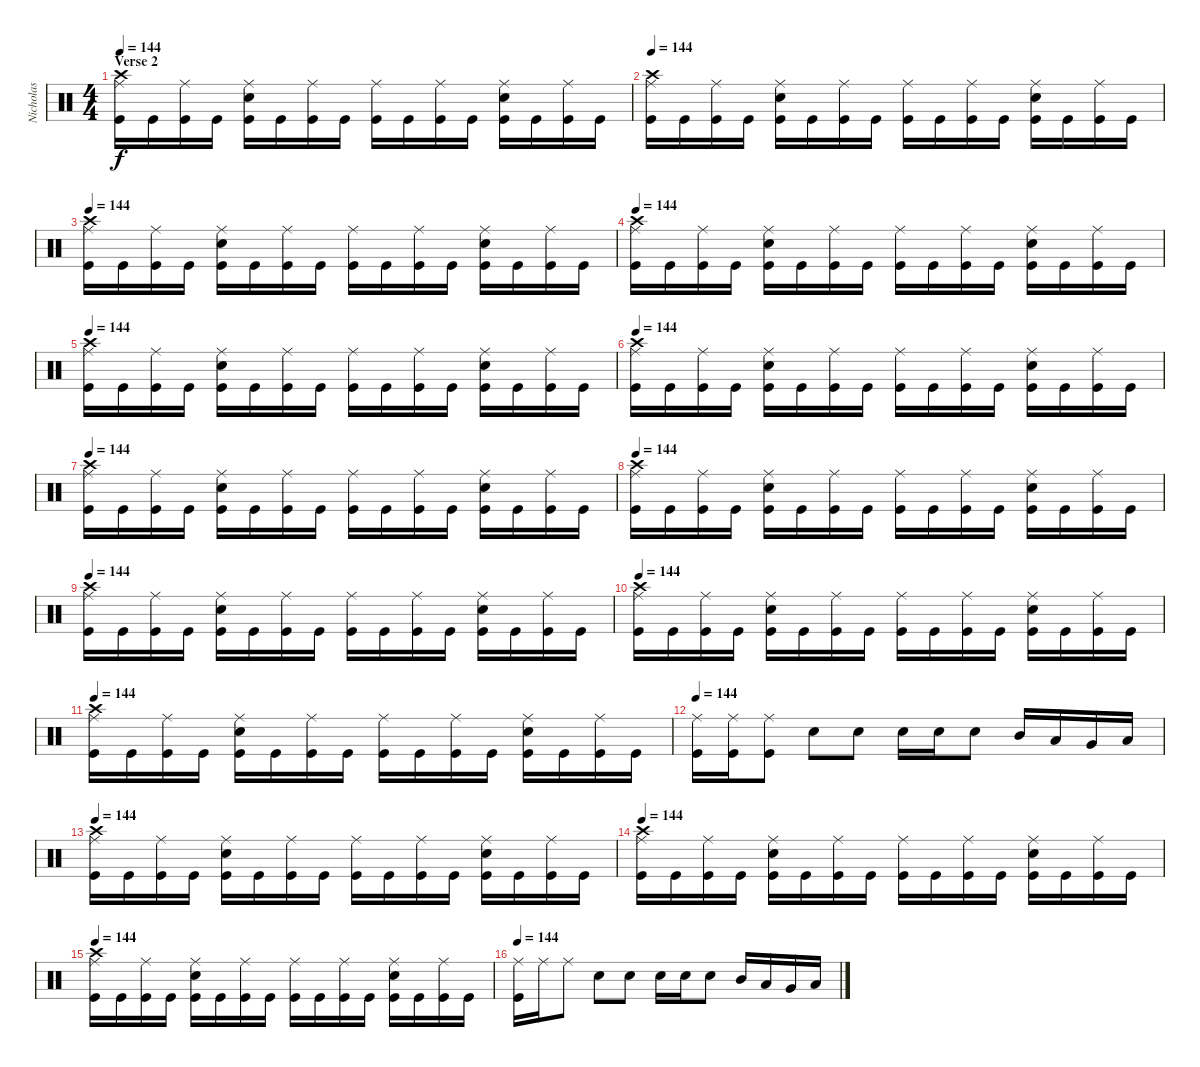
\track ("Nicholas" "Nicholas") {instrument percussion}
\staff {score}
\articulation defaults
\ts (4 4)
\section ("" "Verse 2")
\tempo 144
\clef neutral
\ks c
("Kick (hit)" "Ride (middle)" "Crash high (hit)").16{dy f} "Kick (hit)".16 ("Kick (hit)" "Ride (middle)").16 "Kick (hit)".16 ("Kick (hit)" "Snare (hit) 2" "Ride (middle)").16 "Kick (hit)".16 ("Kick (hit)" "Ride (middle)").16 "Kick (hit)".16 ("Kick (hit)" "Ride (middle)").16 "Kick (hit)".16 ("Kick (hit)" "Ride (middle)").16 "Kick (hit)".16 ("Kick (hit)" "Snare (hit) 2" "Ride (middle)").16 "Kick (hit)".16 ("Kick (hit)" "Ride (middle)").16 "Kick (hit)".16 |
\tempo 144
("Kick (hit)" "Ride (middle)" "Crash high (hit)").16 "Kick (hit)".16 ("Kick (hit)" "Ride (middle)").16 "Kick (hit)".16 ("Kick (hit)" "Snare (hit) 2" "Ride (middle)").16 "Kick (hit)".16 ("Kick (hit)" "Ride (middle)").16 "Kick (hit)".16 ("Kick (hit)" "Ride (middle)").16 "Kick (hit)".16 ("Kick (hit)" "Ride (middle)").16 "Kick (hit)".16 ("Kick (hit)" "Snare (hit) 2" "Ride (middle)").16 "Kick (hit)".16 ("Kick (hit)" "Ride (middle)").16 "Kick (hit)".16 |
\tempo 144
("Kick (hit)" "Ride (middle)" "Crash high (hit)").16 "Kick (hit)".16 ("Kick (hit)" "Ride (middle)").16 "Kick (hit)".16 ("Kick (hit)" "Snare (hit) 2" "Ride (middle)").16 "Kick (hit)".16 ("Kick (hit)" "Ride (middle)").16 "Kick (hit)".16 ("Kick (hit)" "Ride (middle)").16 "Kick (hit)".16 ("Kick (hit)" "Ride (middle)").16 "Kick (hit)".16 ("Kick (hit)" "Snare (hit) 2" "Ride (middle)").16 "Kick (hit)".16 ("Kick (hit)" "Ride (middle)").16 "Kick (hit)".16 |
\tempo 144
("Kick (hit)" "Ride (middle)" "Crash high (hit)").16 "Kick (hit)".16 ("Kick (hit)" "Ride (middle)").16 "Kick (hit)".16 ("Kick (hit)" "Snare (hit) 2" "Ride (middle)").16 "Kick (hit)".16 ("Kick (hit)" "Ride (middle)").16 "Kick (hit)".16 ("Kick (hit)" "Ride (middle)").16 "Kick (hit)".16 ("Kick (hit)" "Ride (middle)").16 "Kick (hit)".16 ("Kick (hit)" "Snare (hit) 2" "Ride (middle)").16 "Kick (hit)".16 ("Kick (hit)" "Ride (middle)").16 "Kick (hit)".16 |
\tempo 144
("Kick (hit)" "Ride (middle)" "Crash high (hit)").16 "Kick (hit)".16 ("Kick (hit)" "Ride (middle)").16 "Kick (hit)".16 ("Kick (hit)" "Snare (hit) 2" "Ride (middle)").16 "Kick (hit)".16 ("Kick (hit)" "Ride (middle)").16 "Kick (hit)".16 ("Kick (hit)" "Ride (middle)").16 "Kick (hit)".16 ("Kick (hit)" "Ride (middle)").16 "Kick (hit)".16 ("Kick (hit)" "Snare (hit) 2" "Ride (middle)").16 "Kick (hit)".16 ("Kick (hit)" "Ride (middle)").16 "Kick (hit)".16 |
\tempo 144
("Kick (hit)" "Ride (middle)" "Crash high (hit)").16 "Kick (hit)".16 ("Kick (hit)" "Ride (middle)").16 "Kick (hit)".16 ("Kick (hit)" "Snare (hit) 2" "Ride (middle)").16 "Kick (hit)".16 ("Kick (hit)" "Ride (middle)").16 "Kick (hit)".16 ("Kick (hit)" "Ride (middle)").16 "Kick (hit)".16 ("Kick (hit)" "Ride (middle)").16 "Kick (hit)".16 ("Kick (hit)" "Snare (hit) 2" "Ride (middle)").16 "Kick (hit)".16 ("Kick (hit)" "Ride (middle)").16 "Kick (hit)".16 |
\tempo 144
("Kick (hit)" "Ride (middle)" "Crash high (hit)").16 "Kick (hit)".16 ("Kick (hit)" "Ride (middle)").16 "Kick (hit)".16 ("Kick (hit)" "Snare (hit) 2" "Ride (middle)").16 "Kick (hit)".16 ("Kick (hit)" "Ride (middle)").16 "Kick (hit)".16 ("Kick (hit)" "Ride (middle)").16 "Kick (hit)".16 ("Kick (hit)" "Ride (middle)").16 "Kick (hit)".16 ("Kick (hit)" "Snare (hit) 2" "Ride (middle)").16 "Kick (hit)".16 ("Kick (hit)" "Ride (middle)").16 "Kick (hit)".16 |
\tempo 144
("Kick (hit)" "Ride (middle)" "Crash high (hit)").16 "Kick (hit)".16 ("Kick (hit)" "Ride (middle)").16 "Kick (hit)".16 ("Kick (hit)" "Snare (hit) 2" "Ride (middle)").16 "Kick (hit)".16 ("Kick (hit)" "Ride (middle)").16 "Kick (hit)".16 ("Kick (hit)" "Ride (middle)").16 "Kick (hit)".16 ("Kick (hit)" "Ride (middle)").16 "Kick (hit)".16 ("Kick (hit)" "Snare (hit) 2" "Ride (middle)").16 "Kick (hit)".16 ("Kick (hit)" "Ride (middle)").16 "Kick (hit)".16 |
\tempo 144
("Kick (hit)" "Ride (middle)" "Crash high (hit)").16 "Kick (hit)".16 ("Kick (hit)" "Ride (middle)").16 "Kick (hit)".16 ("Kick (hit)" "Snare (hit) 2" "Ride (middle)").16 "Kick (hit)".16 ("Kick (hit)" "Ride (middle)").16 "Kick (hit)".16 ("Kick (hit)" "Ride (middle)").16 "Kick (hit)".16 ("Kick (hit)" "Ride (middle)").16 "Kick (hit)".16 ("Kick (hit)" "Snare (hit) 2" "Ride (middle)").16 "Kick (hit)".16 ("Kick (hit)" "Ride (middle)").16 "Kick (hit)".16 |
\tempo 144
("Kick (hit)" "Ride (middle)" "Crash high (hit)").16 "Kick (hit)".16 ("Kick (hit)" "Ride (middle)").16 "Kick (hit)".16 ("Kick (hit)" "Snare (hit) 2" "Ride (middle)").16 "Kick (hit)".16 ("Kick (hit)" "Ride (middle)").16 "Kick (hit)".16 ("Kick (hit)" "Ride (middle)").16 "Kick (hit)".16 ("Kick (hit)" "Ride (middle)").16 "Kick (hit)".16 ("Kick (hit)" "Snare (hit) 2" "Ride (middle)").16 "Kick (hit)".16 ("Kick (hit)" "Ride (middle)").16 "Kick (hit)".16 |
\tempo 144
("Kick (hit)" "Ride (middle)" "Crash high (hit)").16 "Kick (hit)".16 ("Kick (hit)" "Ride (middle)").16 "Kick (hit)".16 ("Kick (hit)" "Snare (hit) 2" "Ride (middle)").16 "Kick (hit)".16 ("Kick (hit)" "Ride (middle)").16 "Kick (hit)".16 ("Kick (hit)" "Ride (middle)").16 "Kick (hit)".16 ("Kick (hit)" "Ride (middle)").16 "Kick (hit)".16 ("Kick (hit)" "Snare (hit) 2" "Ride (middle)").16 "Kick (hit)".16 ("Kick (hit)" "Ride (middle)").16 "Kick (hit)".16 |
\tempo 144
("Kick (hit)" "Ride (middle)").16 ("Kick (hit)" "Ride (middle)").16 ("Kick (hit)" "Ride (middle)").8 "Snare (hit) 2".8 "Snare (hit) 2".8 "Snare (hit) 2".16 "Snare (hit) 2".16 "Snare (hit) 2".8 "Mid Tom (hit)".16 "Low Tom (hit)".16 "Very Low Tom (hit)".16 "Low Floor Tom (hit)".16 |
\tempo 144
("Kick (hit)" "Ride (middle)" "Crash high (hit)").16 "Kick (hit)".16 ("Kick (hit)" "Ride (middle)").16 "Kick (hit)".16 ("Kick (hit)" "Snare (hit) 2" "Ride (middle)").16 "Kick (hit)".16 ("Kick (hit)" "Ride (middle)").16 "Kick (hit)".16 ("Kick (hit)" "Ride (middle)").16 "Kick (hit)".16 ("Kick (hit)" "Ride (middle)").16 "Kick (hit)".16 ("Kick (hit)" "Snare (hit) 2" "Ride (middle)").16 "Kick (hit)".16 ("Kick (hit)" "Ride (middle)").16 "Kick (hit)".16 |
\tempo 144
("Kick (hit)" "Ride (middle)" "Crash high (hit)").16 "Kick (hit)".16 ("Kick (hit)" "Ride (middle)").16 "Kick (hit)".16 ("Kick (hit)" "Snare (hit) 2" "Ride (middle)").16 "Kick (hit)".16 ("Kick (hit)" "Ride (middle)").16 "Kick (hit)".16 ("Kick (hit)" "Ride (middle)").16 "Kick (hit)".16 ("Kick (hit)" "Ride (middle)").16 "Kick (hit)".16 ("Kick (hit)" "Snare (hit) 2" "Ride (middle)").16 "Kick (hit)".16 ("Kick (hit)" "Ride (middle)").16 "Kick (hit)".16 |
\tempo 144
("Kick (hit)" "Ride (middle)" "Crash high (hit)").16 "Kick (hit)".16 ("Kick (hit)" "Ride (middle)").16 "Kick (hit)".16 ("Kick (hit)" "Snare (hit) 2" "Ride (middle)").16 "Kick (hit)".16 ("Kick (hit)" "Ride (middle)").16 "Kick (hit)".16 ("Kick (hit)" "Ride (middle)").16 "Kick (hit)".16 ("Kick (hit)" "Ride (middle)").16 "Kick (hit)".16 ("Kick (hit)" "Snare (hit) 2" "Ride (middle)").16 "Kick (hit)".16 ("Kick (hit)" "Ride (middle)").16 "Kick (hit)".16 |
\tempo 144
("Kick (hit)" "Ride (middle)").16 "Ride (middle)".16 "Ride (middle)".8 "Snare (hit) 2".8 "Snare (hit) 2".8 "Snare (hit) 2".16 "Snare (hit) 2".16 "Snare (hit) 2".8 "Mid Tom (hit)".16 "Low Tom (hit)".16 "Very Low Tom (hit)".16 "Low Floor Tom (hit)".16
